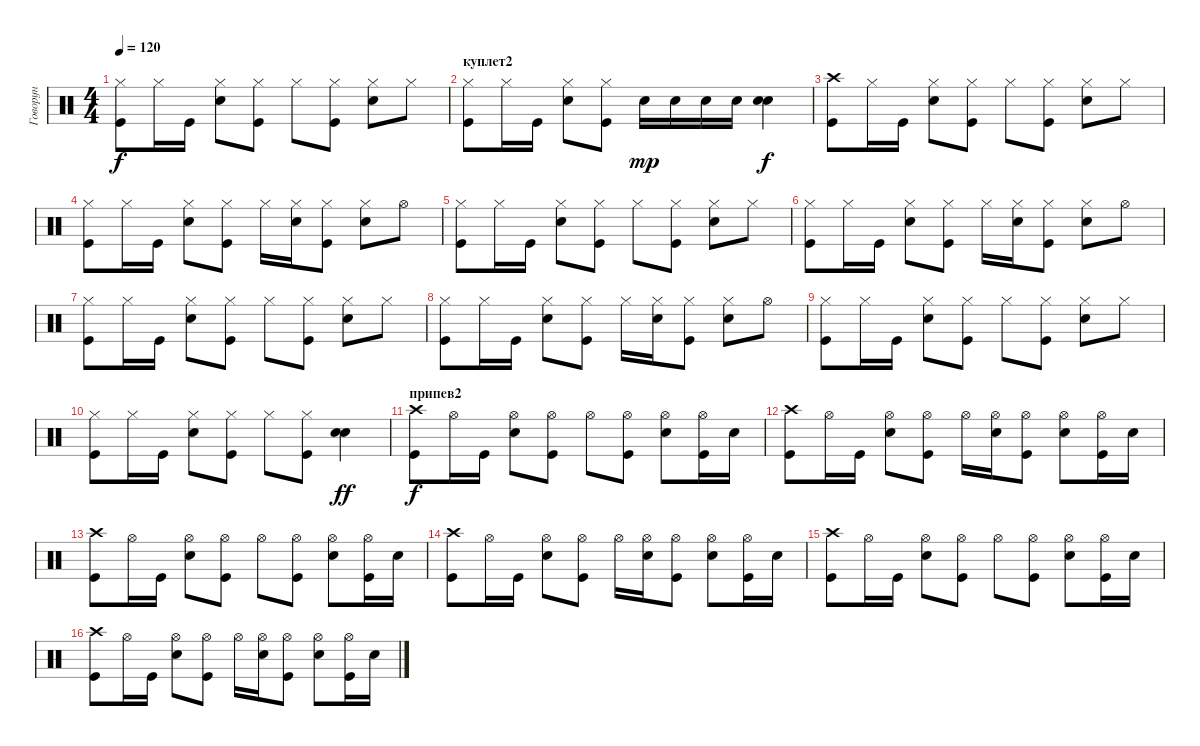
\track ("Говорун" "Говорун") {instrument percussion}
\staff {score}
\articulation defaults
\ts (4 4)
\tempo 120
\clef neutral
\ks c
("Hi-Hat (closed)" "Kick (hit)").8{dy f} "Hi-Hat (closed)".16 "Kick (hit)".16 ("Hi-Hat (closed)" "Snare (hit) 2").8 ("Hi-Hat (closed)" "Kick (hit)").8 "Hi-Hat (closed)".8 ("Hi-Hat (closed)" "Kick (hit)").8 ("Hi-Hat (closed)" "Snare (hit) 2").8 "Hi-Hat (closed)".8 |
\section ("" "куплет2")
("Hi-Hat (closed)" "Kick (hit)").8 "Hi-Hat (closed)".16 "Kick (hit)".16 ("Hi-Hat (closed)" "Snare (hit) 2").8 ("Hi-Hat (closed)" "Kick (hit)").8 "Snare (hit) 2".16{dy mp} "Snare (hit) 2".16 "Snare (hit) 2".16 "Snare (hit) 2".16 ("Snare (hit) 2" "Snare (hit) 2").4{dy f} |
("Kick (hit)" "Crash high (hit)").8 "Hi-Hat (closed)".16 "Kick (hit)".16 ("Hi-Hat (closed)" "Snare (hit) 2").8 ("Hi-Hat (closed)" "Kick (hit)").8 "Hi-Hat (closed)".8 ("Hi-Hat (closed)" "Kick (hit)").8 ("Hi-Hat (closed)" "Snare (hit) 2").8 "Hi-Hat (closed)".8 |
("Hi-Hat (closed)" "Kick (hit)").8 "Hi-Hat (closed)".16 "Kick (hit)".16 ("Hi-Hat (closed)" "Snare (hit) 2").8 ("Hi-Hat (closed)" "Kick (hit)").8 "Hi-Hat (closed)".16 ("Hi-Hat (closed)" "Snare (hit) 2").16 ("Hi-Hat (closed)" "Kick (hit)").8 ("Hi-Hat (closed)" "Snare (hit) 2").8 "Hi-Hat (open)".8 |
("Hi-Hat (closed)" "Kick (hit)").8 "Hi-Hat (closed)".16 "Kick (hit)".16 ("Hi-Hat (closed)" "Snare (hit) 2").8 ("Hi-Hat (closed)" "Kick (hit)").8 "Hi-Hat (closed)".8 ("Hi-Hat (closed)" "Kick (hit)").8 ("Hi-Hat (closed)" "Snare (hit) 2").8 "Hi-Hat (closed)".8 |
("Hi-Hat (closed)" "Kick (hit)").8 "Hi-Hat (closed)".16 "Kick (hit)".16 ("Hi-Hat (closed)" "Snare (hit) 2").8 ("Hi-Hat (closed)" "Kick (hit)").8 "Hi-Hat (closed)".16 ("Hi-Hat (closed)" "Snare (hit) 2").16 ("Hi-Hat (closed)" "Kick (hit)").8 ("Hi-Hat (closed)" "Snare (hit) 2").8 "Hi-Hat (open)".8 |
("Hi-Hat (closed)" "Kick (hit)").8 "Hi-Hat (closed)".16 "Kick (hit)".16 ("Hi-Hat (closed)" "Snare (hit) 2").8 ("Hi-Hat (closed)" "Kick (hit)").8 "Hi-Hat (closed)".8 ("Hi-Hat (closed)" "Kick (hit)").8 ("Hi-Hat (closed)" "Snare (hit) 2").8 "Hi-Hat (closed)".8 |
("Hi-Hat (closed)" "Kick (hit)").8 "Hi-Hat (closed)".16 "Kick (hit)".16 ("Hi-Hat (closed)" "Snare (hit) 2").8 ("Hi-Hat (closed)" "Kick (hit)").8 "Hi-Hat (closed)".16 ("Hi-Hat (closed)" "Snare (hit) 2").16 ("Hi-Hat (closed)" "Kick (hit)").8 ("Hi-Hat (closed)" "Snare (hit) 2").8 "Hi-Hat (open)".8 |
("Hi-Hat (closed)" "Kick (hit)").8 "Hi-Hat (closed)".16 "Kick (hit)".16 ("Hi-Hat (closed)" "Snare (hit) 2").8 ("Hi-Hat (closed)" "Kick (hit)").8 "Hi-Hat (closed)".8 ("Hi-Hat (closed)" "Kick (hit)").8 ("Hi-Hat (closed)" "Snare (hit) 2").8 "Hi-Hat (closed)".8 |
("Kick (hit)" "Hi-Hat (closed)").8 "Hi-Hat (closed)".16 "Kick (hit)".16 ("Hi-Hat (closed)" "Snare (hit) 2").8 ("Hi-Hat (closed)" "Kick (hit)").8 "Hi-Hat (closed)".8 ("Hi-Hat (closed)" "Kick (hit)").8 ("Snare (hit) 2" "Snare (hit) 2").4{dy ff} |
\section ("" "припев2")
("Crash high (hit)" "Kick (hit)").8{dy f} "Hi-Hat (open)".16 "Kick (hit)".16 ("Hi-Hat (open)" "Snare (hit) 2").8 ("Hi-Hat (open)" "Kick (hit)").8 "Hi-Hat (open)".8 ("Hi-Hat (open)" "Kick (hit)").8 ("Hi-Hat (open)" "Snare (hit) 2").8 ("Hi-Hat (open)" "Kick (hit)").16 "Snare (hit) 2".16 |
("Crash high (hit)" "Kick (hit)").8 "Hi-Hat (open)".16 "Kick (hit)".16 ("Hi-Hat (open)" "Snare (hit) 2").8 ("Hi-Hat (open)" "Kick (hit)").8 "Hi-Hat (open)".16 ("Hi-Hat (open)" "Snare (hit) 2").16 ("Hi-Hat (open)" "Kick (hit)").8 ("Hi-Hat (open)" "Snare (hit) 2").8 ("Hi-Hat (open)" "Kick (hit)").16 "Snare (hit) 2".16 |
("Crash high (hit)" "Kick (hit)").8 "Hi-Hat (open)".16 "Kick (hit)".16 ("Hi-Hat (open)" "Snare (hit) 2").8 ("Hi-Hat (open)" "Kick (hit)").8 "Hi-Hat (open)".8 ("Hi-Hat (open)" "Kick (hit)").8 ("Hi-Hat (open)" "Snare (hit) 2").8 ("Hi-Hat (open)" "Kick (hit)").16 "Snare (hit) 2".16 |
("Crash high (hit)" "Kick (hit)").8 "Hi-Hat (open)".16 "Kick (hit)".16 ("Hi-Hat (open)" "Snare (hit) 2").8 ("Hi-Hat (open)" "Kick (hit)").8 "Hi-Hat (open)".16 ("Hi-Hat (open)" "Snare (hit) 2").16 ("Hi-Hat (open)" "Kick (hit)").8 ("Hi-Hat (open)" "Snare (hit) 2").8 ("Hi-Hat (open)" "Kick (hit)").16 "Snare (hit) 2".16 |
("Crash high (hit)" "Kick (hit)").8 "Hi-Hat (open)".16 "Kick (hit)".16 ("Hi-Hat (open)" "Snare (hit) 2").8 ("Hi-Hat (open)" "Kick (hit)").8 "Hi-Hat (open)".8 ("Hi-Hat (open)" "Kick (hit)").8 ("Hi-Hat (open)" "Snare (hit) 2").8 ("Hi-Hat (open)" "Kick (hit)").16 "Snare (hit) 2".16 |
("Crash high (hit)" "Kick (hit)").8 "Hi-Hat (open)".16 "Kick (hit)".16 ("Hi-Hat (open)" "Snare (hit) 2").8 ("Hi-Hat (open)" "Kick (hit)").8 "Hi-Hat (open)".16 ("Hi-Hat (open)" "Snare (hit) 2").16 ("Hi-Hat (open)" "Kick (hit)").8 ("Hi-Hat (open)" "Snare (hit) 2").8 ("Hi-Hat (open)" "Kick (hit)").16 "Snare (hit) 2".16
